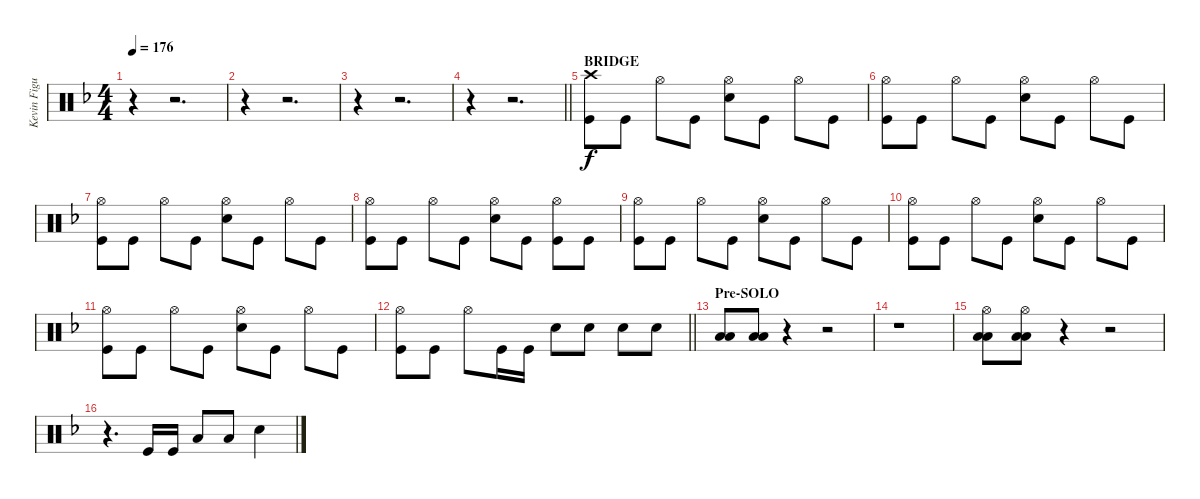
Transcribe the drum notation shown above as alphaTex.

\track ("Kevin Figueiredo - Drums" "Kevin Figu") {instrument percussion}
\staff {score}
\articulation defaults
\ts (4 4)
\tempo 176
\clef neutral
\ks f
r.4{dy f} r.2{d} |
r.4 r.2{d} |
r.4 r.2{d} |
\barLineRight lightlight
r.4 r.2{d} |
\section ("" "BRIDGE")
("Crash high (hit)" "Kick (hit)").8 "Kick (hit)".8 "Hi-Hat (open)".8 "Kick (hit)".8 ("Hi-Hat (open)" "Snare (hit) 2").8 "Kick (hit)".8 "Hi-Hat (open)".8 "Kick (hit)".8 |
("Hi-Hat (open)" "Kick (hit)").8 "Kick (hit)".8 "Hi-Hat (open)".8 "Kick (hit)".8 ("Hi-Hat (open)" "Snare (hit) 2").8 "Kick (hit)".8 "Hi-Hat (open)".8 "Kick (hit)".8 |
("Hi-Hat (open)" "Kick (hit)").8 "Kick (hit)".8 "Hi-Hat (open)".8 "Kick (hit)".8 ("Hi-Hat (open)" "Snare (hit) 2").8 "Kick (hit)".8 "Hi-Hat (open)".8 "Kick (hit)".8 |
("Hi-Hat (open)" "Kick (hit)").8 "Kick (hit)".8 "Hi-Hat (open)".8 "Kick (hit)".8 ("Hi-Hat (open)" "Snare (hit) 2").8 "Kick (hit)".8 ("Hi-Hat (open)" "Kick (hit)").8 "Kick (hit)".8 |
("Hi-Hat (open)" "Kick (hit)").8 "Kick (hit)".8 "Hi-Hat (open)".8 "Kick (hit)".8 ("Hi-Hat (open)" "Snare (hit) 2").8 "Kick (hit)".8 "Hi-Hat (open)".8 "Kick (hit)".8 |
("Hi-Hat (open)" "Kick (hit)").8 "Kick (hit)".8 "Hi-Hat (open)".8 "Kick (hit)".8 ("Hi-Hat (open)" "Snare (hit) 2").8 "Kick (hit)".8 "Hi-Hat (open)".8 "Kick (hit)".8 |
("Hi-Hat (open)" "Kick (hit)").8 "Kick (hit)".8 "Hi-Hat (open)".8 "Kick (hit)".8 ("Hi-Hat (open)" "Snare (hit) 2").8 "Kick (hit)".8 "Hi-Hat (open)".8 "Kick (hit)".8 |
\barLineRight lightlight
("Hi-Hat (open)" "Kick (hit)").8 "Kick (hit)".8 "Hi-Hat (open)".8 "Kick (hit)".16 "Kick (hit)".16 "Snare (hit) 2".8 "Snare (hit) 2".8 "Snare (hit) 2".8 "Snare (hit) 2".8 |
\section ("" "Pre-SOLO")
("Low Tom (hit)" "Low Floor Tom (hit)").8 ("Low Tom (hit)" "Low Floor Tom (hit)").8 r.4 r.2 |
r.1 |
("Hi-Hat (open)" "Low Tom (hit)" "Low Floor Tom (hit)").8 ("Hi-Hat (open)" "Low Tom (hit)" "Low Floor Tom (hit)").8 r.4 r.2 |
r.4{d} "Kick (hit)".16 "Kick (hit)".16 "Low Tom (hit)".8 "Low Floor Tom (hit)".8 "Snare (hit) 2".4
